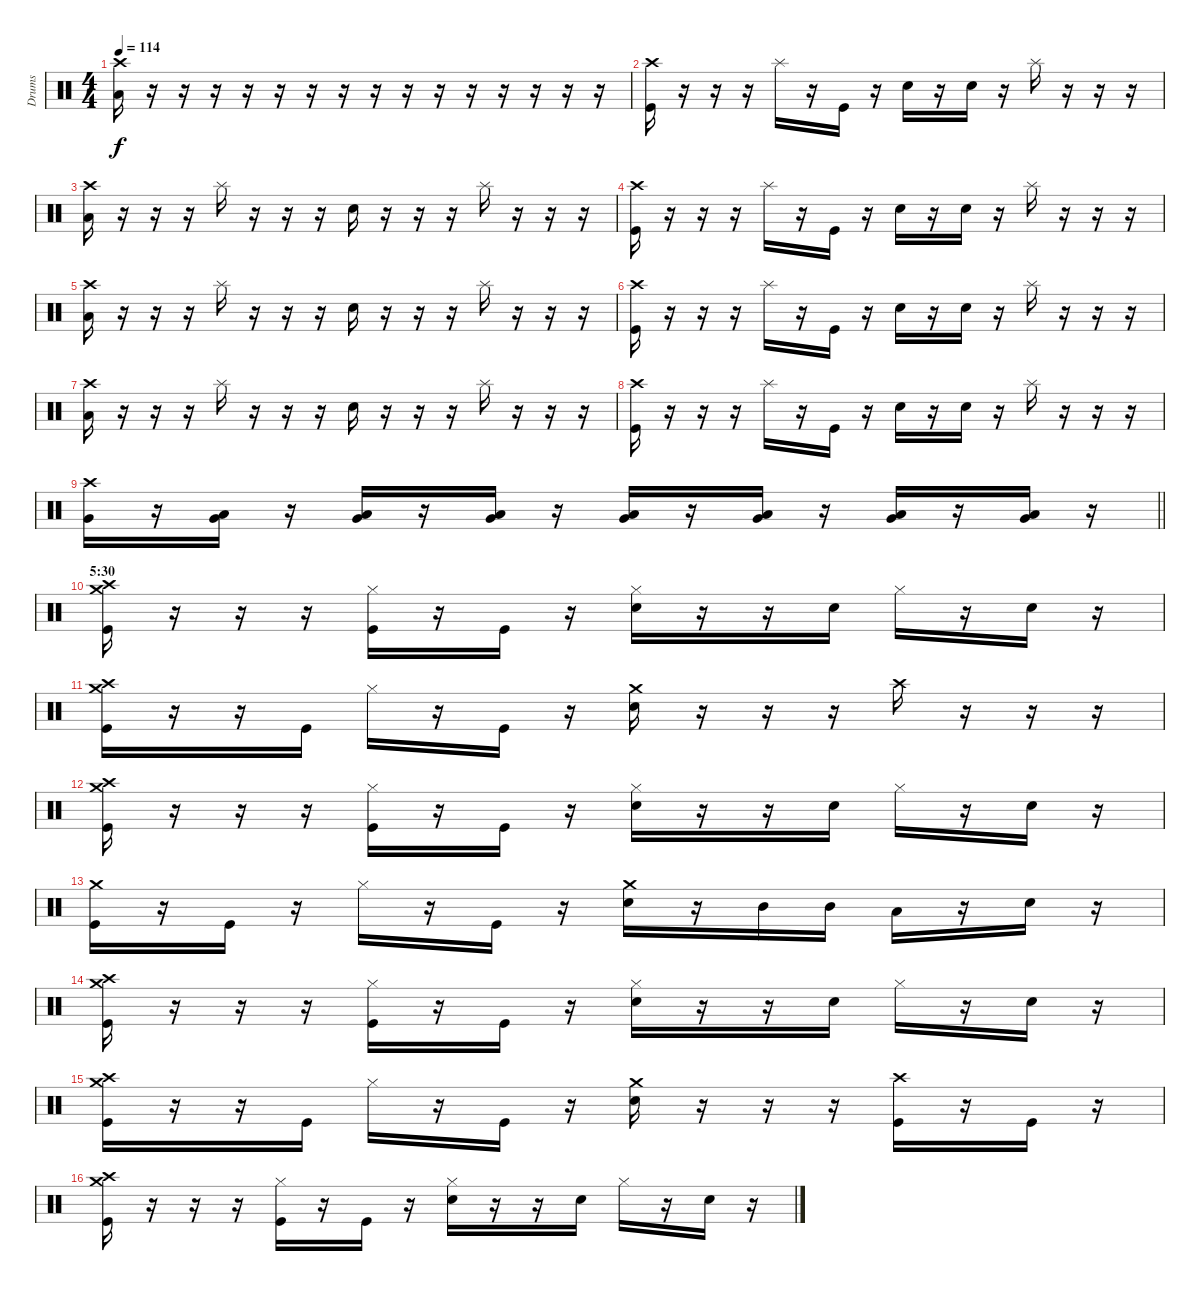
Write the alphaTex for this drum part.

\track ("Drums" "Drums") {instrument percussion}
\staff {score}
\articulation defaults
\ts (4 4)
\tempo 114
\clef neutral
\ks c
("Crash high (hit)" "Low Tom (hit)").16{dy f} r.16 r.16 r.16 r.16 r.16 r.16 r.16 r.16 r.16 r.16 r.16 r.16 r.16 r.16 r.16 |
("Crash high (hit)" "Kick (hit)").16 r.16 r.16 r.16 "Splash (hit)".16 r.16 "Kick (hit)".16 r.16 "Snare (hit) 2".16 r.16 "Snare (hit) 2".16 r.16 "Splash (hit)".16 r.16 r.16 r.16 |
("Crash high (hit)" "Low Tom (hit)").16 r.16 r.16 r.16 "Splash (hit)".16 r.16 r.16 r.16 "Snare (hit) 2".16 r.16 r.16 r.16 "Splash (hit)".16 r.16 r.16 r.16 |
("Crash high (hit)" "Kick (hit)").16 r.16 r.16 r.16 "Splash (hit)".16 r.16 "Kick (hit)".16 r.16 "Snare (hit) 2".16 r.16 "Snare (hit) 2".16 r.16 "Splash (hit)".16 r.16 r.16 r.16 |
("Crash high (hit)" "Low Tom (hit)").16 r.16 r.16 r.16 "Splash (hit)".16 r.16 r.16 r.16 "Snare (hit) 2".16 r.16 r.16 r.16 "Splash (hit)".16 r.16 r.16 r.16 |
("Crash high (hit)" "Kick (hit)").16 r.16 r.16 r.16 "Splash (hit)".16 r.16 "Kick (hit)".16 r.16 "Snare (hit) 2".16 r.16 "Snare (hit) 2".16 r.16 "Splash (hit)".16 r.16 r.16 r.16 |
("Crash high (hit)" "Low Tom (hit)").16 r.16 r.16 r.16 "Splash (hit)".16 r.16 r.16 r.16 "Snare (hit) 2".16 r.16 r.16 r.16 "Splash (hit)".16 r.16 r.16 r.16 |
("Crash high (hit)" "Kick (hit)").16 r.16 r.16 r.16 "Splash (hit)".16 r.16 "Kick (hit)".16 r.16 "Snare (hit) 2".16 r.16 "Snare (hit) 2".16 r.16 "Splash (hit)".16 r.16 r.16 r.16 |
\barLineRight lightlight
("Crash high (hit)" "Very Low Tom (hit)").16 r.16 ("Low Tom (hit)" "Very Low Tom (hit)").16 r.16 ("Low Tom (hit)" "Very Low Tom (hit)").16 r.16 ("Low Tom (hit)" "Very Low Tom (hit)").16 r.16 ("Low Tom (hit)" "Very Low Tom (hit)").16 r.16 ("Low Tom (hit)" "Very Low Tom (hit)").16 r.16 ("Low Tom (hit)" "Very Low Tom (hit)").16 r.16 ("Low Tom (hit)" "Very Low Tom (hit)").16 r.16 |
\section ("" "5:30")
("Crash medium (hit)" "Crash high (hit)" "Kick (hit)").16 r.16 r.16 r.16 ("Hi-Hat (closed)" "Kick (hit)").16 r.16 "Kick (hit)".16 r.16 ("Hi-Hat (closed)" "Snare (hit) 2").16 r.16 r.16 "Snare (hit) 2".16 "Hi-Hat (closed)".16 r.16 "Snare (hit) 2".16 r.16 |
("Crash medium (hit)" "Crash high (hit)" "Kick (hit)").16 r.16 r.16 "Kick (hit)".16 "Hi-Hat (closed)".16 r.16 "Kick (hit)".16 r.16 ("Crash medium (hit)" "Snare (hit) 2").16 r.16 r.16 r.16 "Crash high (hit)".16 r.16 r.16 r.16 |
("Crash medium (hit)" "Crash high (hit)" "Kick (hit)").16 r.16 r.16 r.16 ("Hi-Hat (closed)" "Kick (hit)").16 r.16 "Kick (hit)".16 r.16 ("Hi-Hat (closed)" "Snare (hit) 2").16 r.16 r.16 "Snare (hit) 2".16 "Hi-Hat (closed)".16 r.16 "Snare (hit) 2".16 r.16 |
("Crash medium (hit)" "Kick (hit)").16 r.16 "Kick (hit)".16 r.16 "Hi-Hat (closed)".16 r.16 "Kick (hit)".16 r.16 ("Crash medium (hit)" "Snare (hit) 2").16 r.16 "Mid Tom (hit)".16 "Mid Tom (hit)".16 "Low Tom (hit)".16 r.16 "Snare (hit) 2".16 r.16 |
("Crash medium (hit)" "Crash high (hit)" "Kick (hit)").16 r.16 r.16 r.16 ("Hi-Hat (closed)" "Kick (hit)").16 r.16 "Kick (hit)".16 r.16 ("Hi-Hat (closed)" "Snare (hit) 2").16 r.16 r.16 "Snare (hit) 2".16 "Hi-Hat (closed)".16 r.16 "Snare (hit) 2".16 r.16 |
("Crash medium (hit)" "Crash high (hit)" "Kick (hit)").16 r.16 r.16 "Kick (hit)".16 "Hi-Hat (closed)".16 r.16 "Kick (hit)".16 r.16 ("Crash medium (hit)" "Snare (hit) 2").16 r.16 r.16 r.16 ("Crash high (hit)" "Kick (hit)").16 r.16 "Kick (hit)".16 r.16 |
("Crash medium (hit)" "Crash high (hit)" "Kick (hit)").16 r.16 r.16 r.16 ("Hi-Hat (closed)" "Kick (hit)").16 r.16 "Kick (hit)".16 r.16 ("Hi-Hat (closed)" "Snare (hit) 2").16 r.16 r.16 "Snare (hit) 2".16 "Hi-Hat (closed)".16 r.16 "Snare (hit) 2".16 r.16
